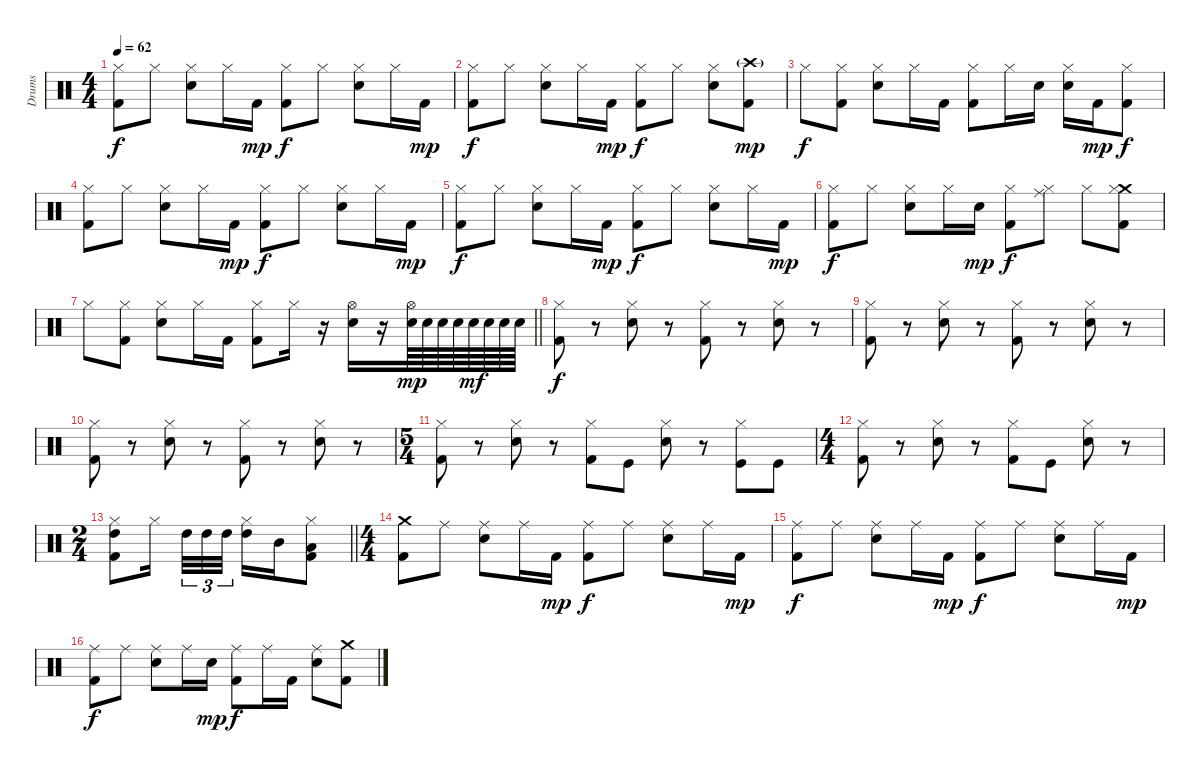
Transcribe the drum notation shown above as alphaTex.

\track ("Drums" "Drums") {instrument percussion}
\staff {score}
\articulation defaults
\ts (4 4)
\tempo 62
\clef neutral
\ks c
("Hi-Hat (closed)" "Kick (hit) 2").8{dy f} "Hi-Hat (closed)".8 ("Hi-Hat (closed)" "Electric Snare (hit)").8 "Hi-Hat (closed)".16 "Kick (hit) 2".16{dy mp} ("Hi-Hat (closed)" "Kick (hit) 2").8{dy f} "Hi-Hat (closed)".8 ("Hi-Hat (closed)" "Electric Snare (hit)").8 "Hi-Hat (closed)".16 "Kick (hit) 2".16{dy mp} |
("Hi-Hat (closed)" "Kick (hit) 2").8{dy f} "Hi-Hat (closed)".8 ("Hi-Hat (closed)" "Electric Snare (hit)").8 "Hi-Hat (closed)".16 "Kick (hit) 2".16{dy mp} ("Hi-Hat (closed)" "Kick (hit) 2").8{dy f} "Hi-Hat (closed)".8 ("Hi-Hat (closed)" "Electric Snare (hit)").8 ("Crash high (hit)"{g} "Kick (hit) 2").8{dy mp} |
"Hi-Hat (closed)".8{dy f} ("Hi-Hat (closed)" "Kick (hit) 2").8 ("Hi-Hat (closed)" "Electric Snare (hit)").8 "Hi-Hat (closed)".16 "Kick (hit) 2".16 ("Hi-Hat (closed)" "Kick (hit) 2").8 "Hi-Hat (closed)".16 "Electric Snare (hit)".16 ("Hi-Hat (closed)" "Electric Snare (hit)").16 "Kick (hit) 2".16{dy mp} ("Hi-Hat (closed)" "Kick (hit) 2").8{dy f} |
("Hi-Hat (closed)" "Kick (hit) 2").8 "Hi-Hat (closed)".8 ("Hi-Hat (closed)" "Electric Snare (hit)").8 "Hi-Hat (closed)".16 "Kick (hit) 2".16{dy mp} ("Hi-Hat (closed)" "Kick (hit) 2").8{dy f} "Hi-Hat (closed)".8 ("Hi-Hat (closed)" "Electric Snare (hit)").8 "Hi-Hat (closed)".16 "Kick (hit) 2".16{dy mp} |
("Hi-Hat (closed)" "Kick (hit) 2").8{dy f} "Hi-Hat (closed)".8 ("Hi-Hat (closed)" "Electric Snare (hit)").8 "Hi-Hat (closed)".16 "Kick (hit) 2".16{dy mp} ("Hi-Hat (closed)" "Kick (hit) 2").8{dy f} "Hi-Hat (closed)".8 ("Hi-Hat (closed)" "Electric Snare (hit)").8 "Hi-Hat (closed)".16 "Kick (hit) 2".16{dy mp} |
("Hi-Hat (closed)" "Kick (hit) 2").8{dy f} "Hi-Hat (closed)".8 ("Hi-Hat (closed)" "Electric Snare (hit)").8 "Hi-Hat (closed)".16 "Electric Snare (hit)".16{dy mp} ("Hi-Hat (closed)" "Kick (hit) 2").8{dy f} ("Ride (middle)" "Hi-Hat (closed)").8 "Hi-Hat (closed)".8 ("Crash medium (hit)" "Hi-Hat (closed)" "Kick (hit) 2").8 |
\barLineRight lightlight "Hi-Hat (closed)".8
("Hi-Hat (closed)" "Kick (hit) 2").8 ("Hi-Hat (closed)" "Electric Snare (hit)").8 "Hi-Hat (closed)".16 "Kick (hit) 2".16 ("Hi-Hat (closed)" "Kick (hit) 2").8 "Hi-Hat (closed)".16 r.16 ("Hi-Hat (open)" "Electric Snare (hit)").16 r.16 ("Hi-Hat (open)" "Electric Snare (hit)").64{dy mp} "Electric Snare (hit)".64 "Electric Snare (hit)".64 "Electric Snare (hit)".64 "Electric Snare (hit)".64{dy mf} "Electric Snare (hit)".64 "Electric Snare (hit)".64 "Electric Snare (hit)".64 |
("Hi-Hat (closed)" "Kick (hit) 2").8{dy f} r.8 ("Hi-Hat (closed)" "Electric Snare (hit)").8 r.8 ("Hi-Hat (closed)" "Kick (hit) 2").8 r.8 ("Hi-Hat (closed)" "Electric Snare (hit)").8 r.8 |
("Hi-Hat (closed)" "Kick (hit) 2").8 r.8 ("Hi-Hat (closed)" "Electric Snare (hit)").8 r.8 ("Hi-Hat (closed)" "Kick (hit) 2").8 r.8 ("Hi-Hat (closed)" "Electric Snare (hit)").8 r.8 |
("Hi-Hat (closed)" "Kick (hit) 2").8 r.8 ("Hi-Hat (closed)" "Electric Snare (hit)").8 r.8 ("Hi-Hat (closed)" "Kick (hit) 2").8 r.8 ("Hi-Hat (closed)" "Electric Snare (hit)").8 r.8 |
\ts (5 4)
("Hi-Hat (closed)" "Kick (hit) 2").8 r.8 ("Hi-Hat (closed)" "Electric Snare (hit)").8 r.8 ("Hi-Hat (closed)" "Kick (hit) 2").8 "Kick (hit)".8 ("Hi-Hat (closed)" "Electric Snare (hit)").8 r.8 ("Hi-Hat (closed)" "Kick (hit)").8 "Kick (hit)".8 |
\ts (4 4)
("Hi-Hat (closed)" "Kick (hit) 2").8 r.8 ("Hi-Hat (closed)" "Electric Snare (hit)").8 r.8 ("Hi-Hat (closed)" "Kick (hit) 2").8 "Kick (hit)".8 ("Hi-Hat (closed)" "Electric Snare (hit)").8 r.8 |
\ts (2 4)
\barLineRight lightlight
("High Tom (hit)" "Hi-Hat (closed)" "Kick (hit) 2").8 "Hi-Hat (closed)".16{beam splitsecondary} "High Tom (hit)".32{tu (3 2)} "High Tom (hit)".32{tu (3 2)} "High Tom (hit)".32{tu (3 2)} ("High Tom (hit)" "Hi-Hat (closed)").16 "Mid Tom (hit)".16 ("Low Tom (hit)" "Hi-Hat (closed)" "Kick (hit) 2").8 |
\ts (4 4)
("Crash medium (hit)" "Kick (hit) 2").8 "Ride (middle)".8 ("Ride (middle)" "Electric Snare (hit)").8 "Ride (middle)".16 "Kick (hit) 2".16{dy mp} ("Ride (middle)" "Kick (hit) 2").8{dy f} "Ride (middle)".8 ("Ride (middle)" "Electric Snare (hit)").8 "Ride (middle)".16 "Kick (hit) 2".16{dy mp} |
("Ride (middle)" "Kick (hit) 2").8{dy f} "Ride (middle)".8 ("Ride (middle)" "Electric Snare (hit)").8 "Ride (middle)".16 "Kick (hit) 2".16{dy mp} ("Ride (middle)" "Kick (hit) 2").8{dy f} "Ride (middle)".8 ("Ride (middle)" "Electric Snare (hit)").8 "Ride (middle)".16 "Kick (hit) 2".16{dy mp} |
("Ride (middle)" "Kick (hit) 2").8{dy f} "Ride (middle)".8 ("Ride (middle)" "Electric Snare (hit)").8 "Ride (middle)".16 "Electric Snare (hit)".16{dy mp} ("Ride (middle)" "Kick (hit) 2").8{dy f} "Ride (middle)".16 "Kick (hit) 2".16 ("Ride (middle)" "Electric Snare (hit)").8 ("Crash medium (hit)" "Kick (hit) 2").8
